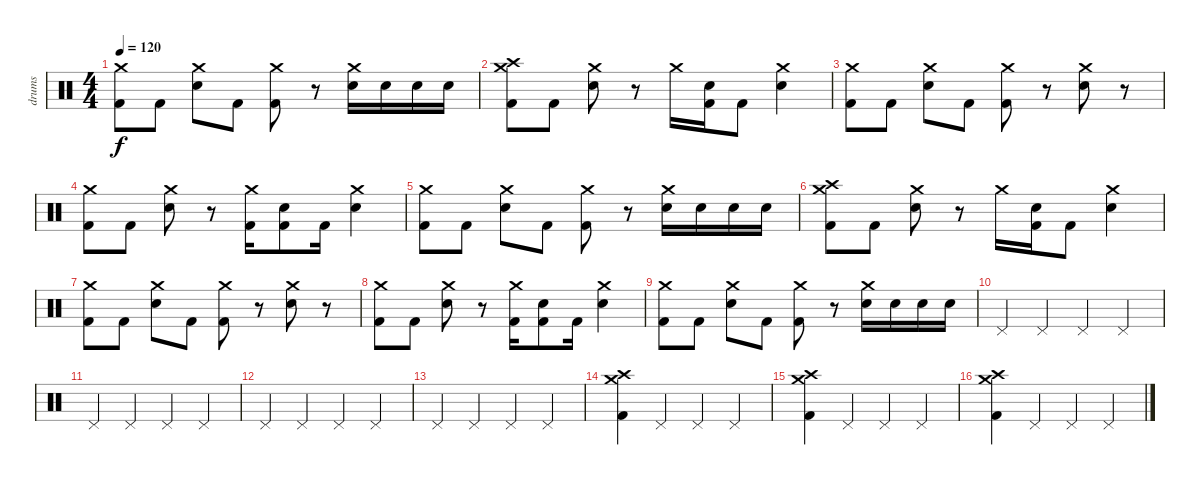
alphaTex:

\track ("drums" "drums") {instrument percussion}
\staff {score}
\articulation defaults
\ts (4 4)
\tempo 120
\clef neutral
\ks c
("Crash medium (hit)" "Kick (hit) 2").8{dy f} "Kick (hit) 2".8 ("Crash medium (hit)" "Electric Snare (hit)").8 "Kick (hit) 2".8 ("Crash medium (hit)" "Kick (hit) 2").8 r.8 ("Crash medium (hit)" "Electric Snare (hit)").16 "Electric Snare (hit)".16 "Electric Snare (hit)".16 "Electric Snare (hit)".16 |
("Crash medium (hit)" "Crash high (hit)" "Kick (hit) 2").8 "Kick (hit) 2".8 ("Crash medium (hit)" "Electric Snare (hit)").8 r.8 "Crash medium (hit)".16 ("Electric Snare (hit)" "Kick (hit) 2").16 "Kick (hit) 2".8 ("Crash medium (hit)" "Electric Snare (hit)").4 |
("Crash medium (hit)" "Kick (hit) 2").8 "Kick (hit) 2".8 ("Crash medium (hit)" "Electric Snare (hit)").8 "Kick (hit) 2".8 ("Crash medium (hit)" "Kick (hit) 2").8 r.8 ("Crash medium (hit)" "Electric Snare (hit)").8 r.8 |
("Crash medium (hit)" "Kick (hit) 2").8 "Kick (hit) 2".8 ("Crash medium (hit)" "Electric Snare (hit)").8 r.8 ("Crash medium (hit)" "Kick (hit) 2").16 ("Electric Snare (hit)" "Kick (hit) 2").8 "Kick (hit) 2".16 ("Crash medium (hit)" "Electric Snare (hit)").4 |
("Crash medium (hit)" "Kick (hit) 2").8 "Kick (hit) 2".8 ("Crash medium (hit)" "Electric Snare (hit)").8 "Kick (hit) 2".8 ("Crash medium (hit)" "Kick (hit) 2").8 r.8 ("Crash medium (hit)" "Electric Snare (hit)").16 "Electric Snare (hit)".16 "Electric Snare (hit)".16 "Electric Snare (hit)".16 |
("Crash medium (hit)" "Crash high (hit)" "Kick (hit) 2").8 "Kick (hit) 2".8 ("Crash medium (hit)" "Electric Snare (hit)").8 r.8 "Crash medium (hit)".16 ("Electric Snare (hit)" "Kick (hit) 2").16 "Kick (hit) 2".8 ("Crash medium (hit)" "Electric Snare (hit)").4 |
("Crash medium (hit)" "Kick (hit) 2").8 "Kick (hit) 2".8 ("Crash medium (hit)" "Electric Snare (hit)").8 "Kick (hit) 2".8 ("Crash medium (hit)" "Kick (hit) 2").8 r.8 ("Crash medium (hit)" "Electric Snare (hit)").8 r.8 |
("Crash medium (hit)" "Kick (hit) 2").8 "Kick (hit) 2".8 ("Crash medium (hit)" "Electric Snare (hit)").8 r.8 ("Crash medium (hit)" "Kick (hit) 2").16 ("Electric Snare (hit)" "Kick (hit) 2").8 "Kick (hit) 2".16 ("Crash medium (hit)" "Electric Snare (hit)").4 |
("Crash medium (hit)" "Kick (hit) 2").8 "Kick (hit) 2".8 ("Crash medium (hit)" "Electric Snare (hit)").8 "Kick (hit) 2".8 ("Crash medium (hit)" "Kick (hit) 2").8 r.8 ("Crash medium (hit)" "Electric Snare (hit)").16 "Electric Snare (hit)".16 "Electric Snare (hit)".16 "Electric Snare (hit)".16 |
"Pedal Hi-Hat (hit)".4 "Pedal Hi-Hat (hit)".4 "Pedal Hi-Hat (hit)".4 "Pedal Hi-Hat (hit)".4 |
"Pedal Hi-Hat (hit)".4 "Pedal Hi-Hat (hit)".4 "Pedal Hi-Hat (hit)".4 "Pedal Hi-Hat (hit)".4 |
"Pedal Hi-Hat (hit)".4 "Pedal Hi-Hat (hit)".4 "Pedal Hi-Hat (hit)".4 "Pedal Hi-Hat (hit)".4 |
"Pedal Hi-Hat (hit)".4 "Pedal Hi-Hat (hit)".4 "Pedal Hi-Hat (hit)".4 "Pedal Hi-Hat (hit)".4 |
("Crash medium (hit)" "Crash high (hit)" "Kick (hit) 2").4 "Pedal Hi-Hat (hit)".4 "Pedal Hi-Hat (hit)".4 "Pedal Hi-Hat (hit)".4 |
("Crash medium (hit)" "Crash high (hit)" "Kick (hit) 2").4 "Pedal Hi-Hat (hit)".4 "Pedal Hi-Hat (hit)".4 "Pedal Hi-Hat (hit)".4 |
("Crash medium (hit)" "Crash high (hit)" "Kick (hit) 2").4 "Pedal Hi-Hat (hit)".4 "Pedal Hi-Hat (hit)".4 "Pedal Hi-Hat (hit)".4
